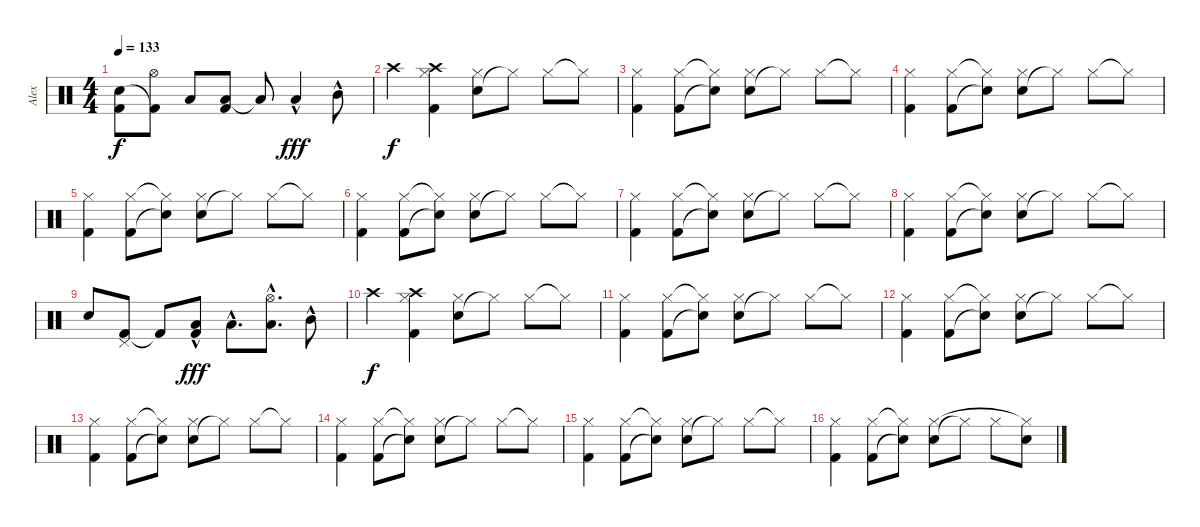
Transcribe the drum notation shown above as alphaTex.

\track ("Alex" "Alex") {instrument percussion}
\staff {score}
\articulation defaults
\ts (4 4)
\tempo 133
\clef neutral
\ks c
("Electric Snare (hit)" "Kick (hit) 2").8{dy f} ("Kick (hit) 2"{t} "Hi-Hat (open)").8 "Low Floor Tom (hit)".8 ("Low Floor Tom (hit)" "Kick (hit) 2").8 "Low Floor Tom (hit)"{t}.8 "Low Tom (hit)"{hac}.4{dy fff} "Mid Tom (hit)"{hac}.8 |
"Crash high (hit)".4{dy f} ("Kick (hit) 2" "Hi-Hat (closed)" "Crash high (hit)").4 ("Electric Snare (hit)" "Hi-Hat (closed)").8 "Hi-Hat (closed)"{t}.8 "Hi-Hat (closed)".8 "Hi-Hat (closed)"{t}.8 |
("Kick (hit) 2" "Hi-Hat (closed)").4 ("Kick (hit) 2" "Hi-Hat (closed)").8 ("Electric Snare (hit)"{t} "Hi-Hat (closed)"{t}).8 ("Electric Snare (hit)" "Hi-Hat (closed)").8 "Hi-Hat (closed)"{t}.8 "Hi-Hat (closed)".8 "Hi-Hat (closed)"{t}.8 |
("Kick (hit) 2" "Hi-Hat (closed)").4 ("Kick (hit) 2" "Hi-Hat (closed)").8 ("Electric Snare (hit)"{t} "Hi-Hat (closed)"{t}).8 ("Electric Snare (hit)" "Hi-Hat (closed)").8 "Hi-Hat (closed)"{t}.8 "Hi-Hat (closed)".8 "Hi-Hat (closed)"{t}.8 |
("Kick (hit) 2" "Hi-Hat (closed)").4 ("Kick (hit) 2" "Hi-Hat (closed)").8 ("Electric Snare (hit)"{t} "Hi-Hat (closed)"{t}).8 ("Electric Snare (hit)" "Hi-Hat (closed)").8 "Hi-Hat (closed)"{t}.8 "Hi-Hat (closed)".8 "Hi-Hat (closed)"{t}.8 |
("Kick (hit) 2" "Hi-Hat (closed)").4 ("Kick (hit) 2" "Hi-Hat (closed)").8 ("Electric Snare (hit)"{t} "Hi-Hat (closed)"{t}).8 ("Electric Snare (hit)" "Hi-Hat (closed)").8 "Hi-Hat (closed)"{t}.8 "Hi-Hat (closed)".8 "Hi-Hat (closed)"{t}.8 |
("Kick (hit) 2" "Hi-Hat (closed)").4 ("Kick (hit) 2" "Hi-Hat (closed)").8 ("Electric Snare (hit)"{t} "Hi-Hat (closed)"{t}).8 ("Electric Snare (hit)" "Hi-Hat (closed)").8 "Hi-Hat (closed)"{t}.8 "Hi-Hat (closed)".8 "Hi-Hat (closed)"{t}.8 |
("Kick (hit) 2" "Hi-Hat (closed)").4 ("Kick (hit) 2" "Hi-Hat (closed)").8 ("Electric Snare (hit)"{t} "Hi-Hat (closed)"{t}).8 ("Electric Snare (hit)" "Hi-Hat (closed)").8 "Hi-Hat (closed)"{t}.8 "Hi-Hat (closed)".8 "Hi-Hat (closed)"{t}.8 |
"Electric Snare (hit)".8 ("Kick (hit) 2" "Pedal Hi-Hat (hit)").8 "Kick (hit) 2"{t}.8 ("Low Floor Tom (hit)"{hac} "Kick (hit) 2").8{dy fff} "Low Tom (hit)"{hac}.8{d} ("Low Tom (hit)"{hac} "Hi-Hat (open)").8{d} "Mid Tom (hit)"{hac}.8 |
"Crash high (hit)".4{dy f} ("Kick (hit) 2" "Hi-Hat (closed)" "Crash high (hit)").4 ("Electric Snare (hit)" "Hi-Hat (closed)").8 "Hi-Hat (closed)"{t}.8 "Hi-Hat (closed)".8 "Hi-Hat (closed)"{t}.8 |
("Kick (hit) 2" "Hi-Hat (closed)").4 ("Kick (hit) 2" "Hi-Hat (closed)").8 ("Electric Snare (hit)"{t} "Hi-Hat (closed)"{t}).8 ("Electric Snare (hit)" "Hi-Hat (closed)").8 "Hi-Hat (closed)"{t}.8 "Hi-Hat (closed)".8 "Hi-Hat (closed)"{t}.8 |
("Kick (hit) 2" "Hi-Hat (closed)").4 ("Kick (hit) 2" "Hi-Hat (closed)").8 ("Electric Snare (hit)"{t} "Hi-Hat (closed)"{t}).8 ("Electric Snare (hit)" "Hi-Hat (closed)").8 "Hi-Hat (closed)"{t}.8 "Hi-Hat (closed)".8 "Hi-Hat (closed)"{t}.8 |
("Kick (hit) 2" "Hi-Hat (closed)").4 ("Kick (hit) 2" "Hi-Hat (closed)").8 ("Electric Snare (hit)"{t} "Hi-Hat (closed)"{t}).8 ("Electric Snare (hit)" "Hi-Hat (closed)").8 "Hi-Hat (closed)"{t}.8 "Hi-Hat (closed)".8 "Hi-Hat (closed)"{t}.8 |
("Kick (hit) 2" "Hi-Hat (closed)").4 ("Kick (hit) 2" "Hi-Hat (closed)").8 ("Electric Snare (hit)"{t} "Hi-Hat (closed)"{t}).8 ("Electric Snare (hit)" "Hi-Hat (closed)").8 "Hi-Hat (closed)"{t}.8 "Hi-Hat (closed)".8 "Hi-Hat (closed)"{t}.8 |
("Kick (hit) 2" "Hi-Hat (closed)").4 ("Kick (hit) 2" "Hi-Hat (closed)").8 ("Electric Snare (hit)"{t} "Hi-Hat (closed)"{t}).8 ("Electric Snare (hit)" "Hi-Hat (closed)").8 "Hi-Hat (closed)"{t}.8 "Hi-Hat (closed)".8 "Hi-Hat (closed)"{t}.8 |
("Kick (hit) 2" "Hi-Hat (closed)").4 ("Kick (hit) 2" "Hi-Hat (closed)").8 ("Electric Snare (hit)"{t} "Hi-Hat (closed)"{t}).8 ("Electric Snare (hit)" "Hi-Hat (closed)").8 "Hi-Hat (closed)"{t}.8 "Hi-Hat (closed)".8 ("Electric Snare (hit)" "Hi-Hat (closed)"{t}).8
